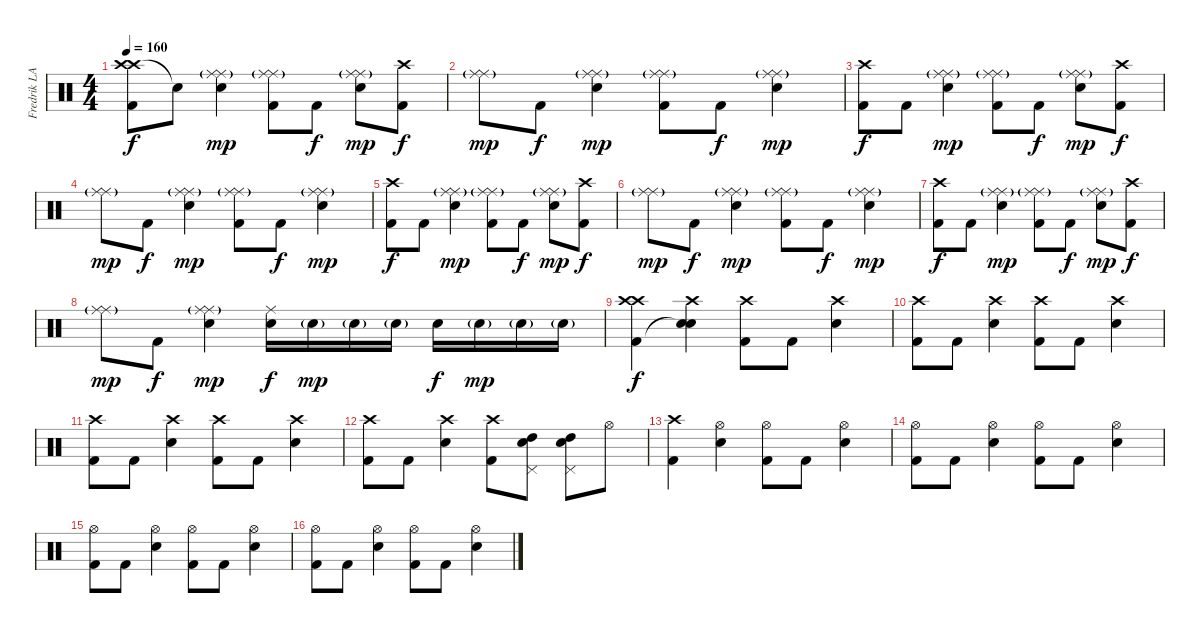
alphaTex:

\track ("Fredrik LARZON" "Fredrik LA") {instrument percussion}
\staff {score}
\articulation defaults
\ts (4 4)
\tempo 160
\clef neutral
\ks c
("Crash high (hit)" "Crash high (hit)" "Kick (hit) 2").8{dy f} "Snare (hit)"{t}.8 ("Ride (middle)" "Electric Snare (hit)" "Ride (middle)"{g}).4{dy mp} ("Ride (middle)" "Ride (middle)"{g} "Kick (hit) 2").8 "Kick (hit) 2".8{dy f} ("Ride (middle)" "Electric Snare (hit)" "Ride (middle)"{g}).8{dy mp} ("Crash high (hit)" "Kick (hit) 2").8{dy f} |
("Ride (middle)" "Ride (middle)"{g}).8{dy mp} "Kick (hit) 2".8{dy f} ("Ride (middle)" "Electric Snare (hit)" "Ride (middle)"{g}).4{dy mp} ("Ride (middle)" "Ride (middle)"{g} "Kick (hit) 2").8 "Kick (hit) 2".8{dy f} ("Ride (middle)" "Electric Snare (hit)" "Ride (middle)"{g}).4{dy mp} |
("Crash high (hit)" "Kick (hit) 2").8{dy f} "Kick (hit) 2".8 ("Ride (middle)" "Electric Snare (hit)" "Ride (middle)"{g}).4{dy mp} ("Ride (middle)" "Ride (middle)"{g} "Kick (hit) 2").8 "Kick (hit) 2".8{dy f} ("Ride (middle)" "Electric Snare (hit)" "Ride (middle)"{g}).8{dy mp} ("Crash high (hit)" "Kick (hit) 2").8{dy f} |
("Ride (middle)" "Ride (middle)"{g}).8{dy mp} "Kick (hit) 2".8{dy f} ("Ride (middle)" "Electric Snare (hit)" "Ride (middle)"{g}).4{dy mp} ("Ride (middle)" "Ride (middle)"{g} "Kick (hit) 2").8 "Kick (hit) 2".8{dy f} ("Ride (middle)" "Electric Snare (hit)" "Ride (middle)"{g}).4{dy mp} |
("Crash high (hit)" "Kick (hit) 2").8{dy f} "Kick (hit) 2".8 ("Ride (middle)" "Electric Snare (hit)" "Ride (middle)"{g}).4{dy mp} ("Ride (middle)" "Ride (middle)"{g} "Kick (hit) 2").8 "Kick (hit) 2".8{dy f} ("Ride (middle)" "Electric Snare (hit)" "Ride (middle)"{g}).8{dy mp} ("Crash high (hit)" "Kick (hit) 2").8{dy f} |
("Ride (middle)" "Ride (middle)"{g}).8{dy mp} "Kick (hit) 2".8{dy f} ("Ride (middle)" "Electric Snare (hit)" "Ride (middle)"{g}).4{dy mp} ("Ride (middle)" "Ride (middle)"{g} "Kick (hit) 2").8 "Kick (hit) 2".8{dy f} ("Ride (middle)" "Electric Snare (hit)" "Ride (middle)"{g}).4{dy mp} |
("Crash high (hit)" "Kick (hit) 2").8{dy f} "Kick (hit) 2".8 ("Ride (middle)" "Electric Snare (hit)" "Ride (middle)"{g}).4{dy mp} ("Ride (middle)" "Ride (middle)"{g} "Kick (hit) 2").8 "Kick (hit) 2".8{dy f} ("Ride (middle)" "Electric Snare (hit)" "Ride (middle)"{g}).8{dy mp} ("Crash high (hit)" "Kick (hit) 2").8{dy f} |
("Ride (middle)" "Ride (middle)"{g}).8{dy mp} "Kick (hit) 2".8{dy f} ("Ride (middle)" "Electric Snare (hit)" "Ride (middle)"{g}).4{dy mp} ("Ride (middle)" "Electric Snare (hit)").16{dy f} "Electric Snare (hit)"{g}.16{dy mp} "Electric Snare (hit)"{g}.16 "Electric Snare (hit)"{g}.16 "Electric Snare (hit)".16{dy f} "Electric Snare (hit)"{g}.16{dy mp} "Electric Snare (hit)"{g}.16 "Electric Snare (hit)"{g}.16 |
("Crash high (hit)" "Crash high (hit)" "Kick (hit) 2").4{dy f} ("Crash high (hit)" "Electric Snare (hit)" "Snare (hit)"{t}).4 ("Crash high (hit)" "Kick (hit) 2").8 "Kick (hit) 2".8 ("Crash high (hit)" "Electric Snare (hit)").4 |
("Crash high (hit)" "Kick (hit) 2").8 "Kick (hit) 2".8 ("Crash high (hit)" "Electric Snare (hit)").4 ("Crash high (hit)" "Kick (hit) 2").8 "Kick (hit) 2".8 ("Crash high (hit)" "Electric Snare (hit)").4 |
("Crash high (hit)" "Kick (hit) 2").8 "Kick (hit) 2".8 ("Crash high (hit)" "Electric Snare (hit)").4 ("Crash high (hit)" "Kick (hit) 2").8 "Kick (hit) 2".8 ("Crash high (hit)" "Electric Snare (hit)").4 |
("Crash high (hit)" "Kick (hit) 2").8 "Kick (hit) 2".8 ("Crash high (hit)" "Electric Snare (hit)").4 ("Crash high (hit)" "Kick (hit) 2").8 ("Pedal Hi-Hat (hit)" "Electric Snare (hit)" "High Tom (hit)").8 ("Pedal Hi-Hat (hit)" "Electric Snare (hit)" "High Tom (hit)").8 "Hi-Hat (open)".8 |
("Crash high (hit)" "Kick (hit) 2").4 ("Hi-Hat (open)" "Electric Snare (hit)").4 ("Hi-Hat (open)" "Kick (hit) 2").8 "Kick (hit) 2".8 ("Hi-Hat (open)" "Electric Snare (hit)").4 |
("Hi-Hat (open)" "Kick (hit) 2").8 "Kick (hit) 2".8 ("Hi-Hat (open)" "Electric Snare (hit)").4 ("Hi-Hat (open)" "Kick (hit) 2").8 "Kick (hit) 2".8 ("Hi-Hat (open)" "Electric Snare (hit)").4 |
("Hi-Hat (open)" "Kick (hit) 2").8 "Kick (hit) 2".8 ("Hi-Hat (open)" "Electric Snare (hit)").4 ("Hi-Hat (open)" "Kick (hit) 2").8 "Kick (hit) 2".8 ("Hi-Hat (open)" "Electric Snare (hit)").4 |
("Hi-Hat (open)" "Kick (hit) 2").8 "Kick (hit) 2".8 ("Hi-Hat (open)" "Electric Snare (hit)").4 ("Hi-Hat (open)" "Kick (hit) 2").8 "Kick (hit) 2".8 ("Hi-Hat (open)" "Electric Snare (hit)").4
